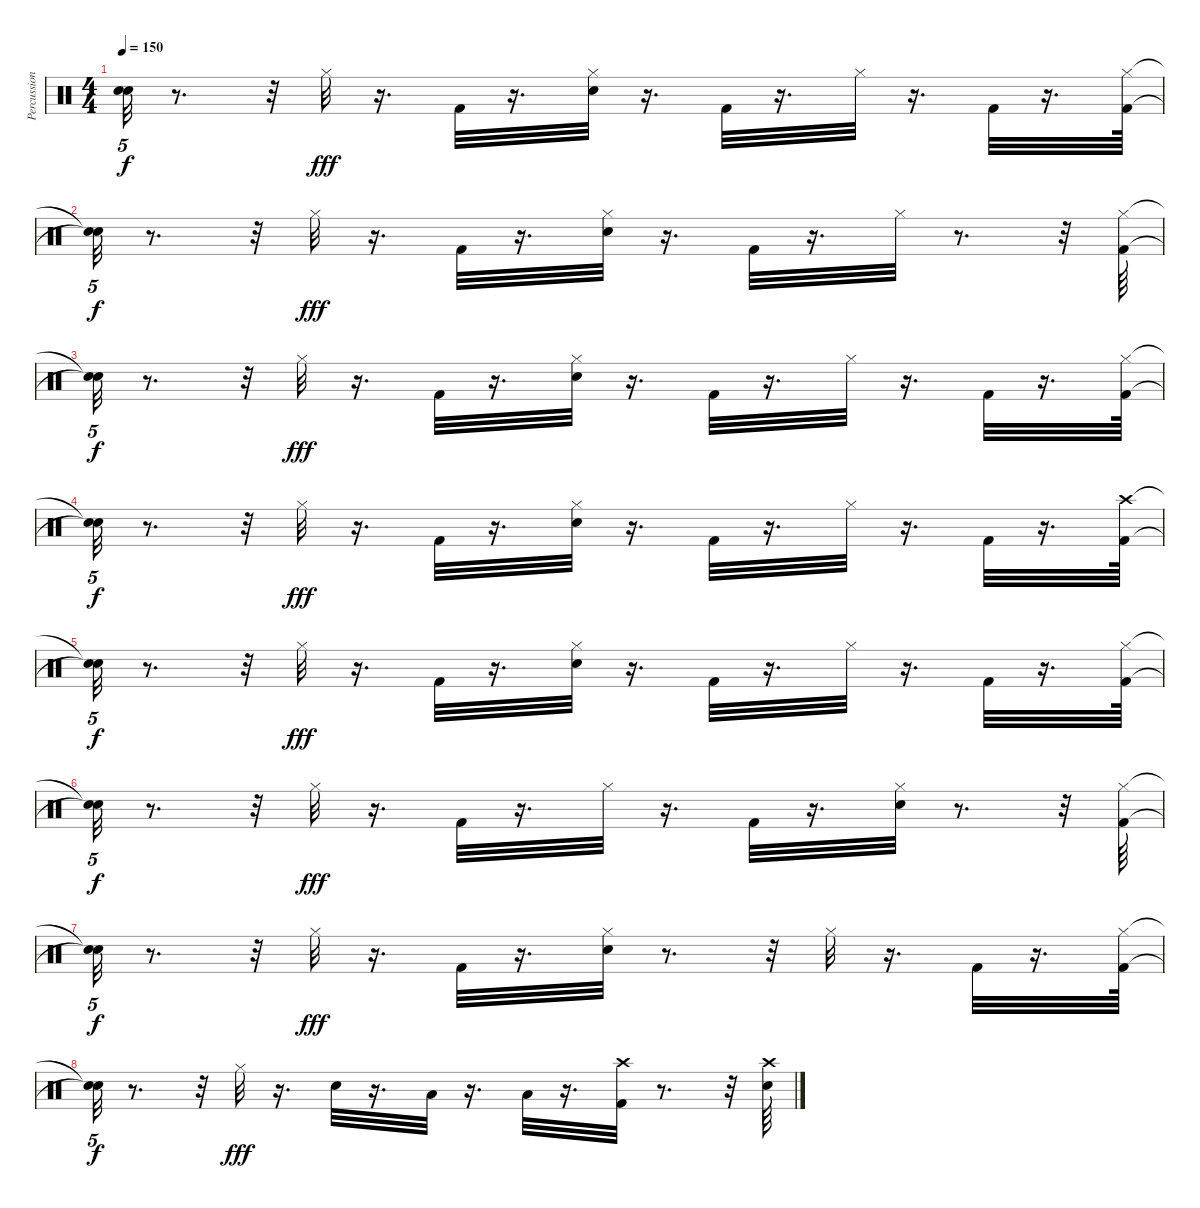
\track ("Percussion" "Percussion") {instrument percussion}
\staff {score}
\articulation defaults
\ts (4 4)
\tempo 150
\clef neutral
\ks c
("Snare (hit)"{t} "Snare (hit)"{t}).32{tu (5 4) dy f} r.8{d} r.32 "Hi-Hat (closed)".32{dy fff} r.16{d} "Kick (hit) 2".32 r.16{d} ("Hi-Hat (closed)" "Snare (hit) 2").32 r.16{d} "Kick (hit) 2".32 r.16{d} "Hi-Hat (closed)".32 r.16{d} "Kick (hit) 2".32 r.16{d} ("Kick (hit) 2" "Hi-Hat (closed)").64 |
("Snare (hit)"{t} "Snare (hit)"{t}).32{tu (5 4) dy f} r.8{d} r.32 "Hi-Hat (closed)".32{dy fff} r.16{d} "Kick (hit) 2".32 r.16{d} ("Hi-Hat (closed)" "Snare (hit) 2").32 r.16{d} "Kick (hit) 2".32 r.16{d} "Hi-Hat (closed)".32 r.8{d} r.32 ("Kick (hit) 2" "Hi-Hat (closed)").64 |
("Snare (hit)"{t} "Snare (hit)"{t}).32{tu (5 4) dy f} r.8{d} r.32 "Hi-Hat (closed)".32{dy fff} r.16{d} "Kick (hit) 2".32 r.16{d} ("Hi-Hat (closed)" "Snare (hit) 2").32 r.16{d} "Kick (hit) 2".32 r.16{d} "Hi-Hat (closed)".32 r.16{d} "Kick (hit) 2".32 r.16{d} ("Hi-Hat (closed)" "Kick (hit) 2").64 |
("Snare (hit)"{t} "Snare (hit)"{t}).32{tu (5 4) dy f} r.8{d} r.32 "Hi-Hat (closed)".32{dy fff} r.16{d} "Kick (hit) 2".32 r.16{d} ("Snare (hit) 2" "Hi-Hat (closed)").32 r.16{d} "Kick (hit) 2".32 r.16{d} "Hi-Hat (closed)".32 r.16{d} "Kick (hit) 2".32 r.16{d} ("Kick (hit) 2" "Crash high (hit)").64 |
("Snare (hit)"{t} "Snare (hit)"{t}).32{tu (5 4) dy f} r.8{d} r.32 "Hi-Hat (closed)".32{dy fff} r.16{d} "Kick (hit) 2".32 r.16{d} ("Hi-Hat (closed)" "Snare (hit) 2").32 r.16{d} "Kick (hit) 2".32 r.16{d} "Hi-Hat (closed)".32 r.16{d} "Kick (hit) 2".32 r.16{d} ("Kick (hit) 2" "Hi-Hat (closed)").64 |
("Snare (hit)"{t} "Snare (hit)"{t}).32{tu (5 4) dy f} r.8{d} r.32 "Hi-Hat (closed)".32{dy fff} r.16{d} "Kick (hit) 2".32 r.16{d} "Hi-Hat (closed)".32 r.16{d} "Kick (hit) 2".32 r.16{d} ("Snare (hit) 2" "Hi-Hat (closed)").32 r.8{d} r.32 ("Kick (hit) 2" "Hi-Hat (closed)").64 |
("Snare (hit)"{t} "Snare (hit)"{t}).32{tu (5 4) dy f} r.8{d} r.32 "Hi-Hat (closed)".32{dy fff} r.16{d} "Kick (hit) 2".32 r.16{d} ("Hi-Hat (closed)" "Snare (hit) 2").32 r.8{d} r.32 "Hi-Hat (closed)".32 r.16{d} "Kick (hit) 2".32 r.16{d} ("Hi-Hat (closed)" "Kick (hit) 2").64 |
("Snare (hit)"{t} "Snare (hit)"{t}).32{tu (5 4) dy f} r.8{d} r.32 "Hi-Hat (closed)".32{dy fff} r.16{d} "Electric Snare (hit)".32 r.16{d} "Low Tom (hit)".32 r.16{d} "Low Tom (hit)".32 r.16{d} ("Kick (hit) 2" "Crash high (hit)").32 r.8{d} r.32 ("Crash high (hit)" "Snare (hit) 2").64
